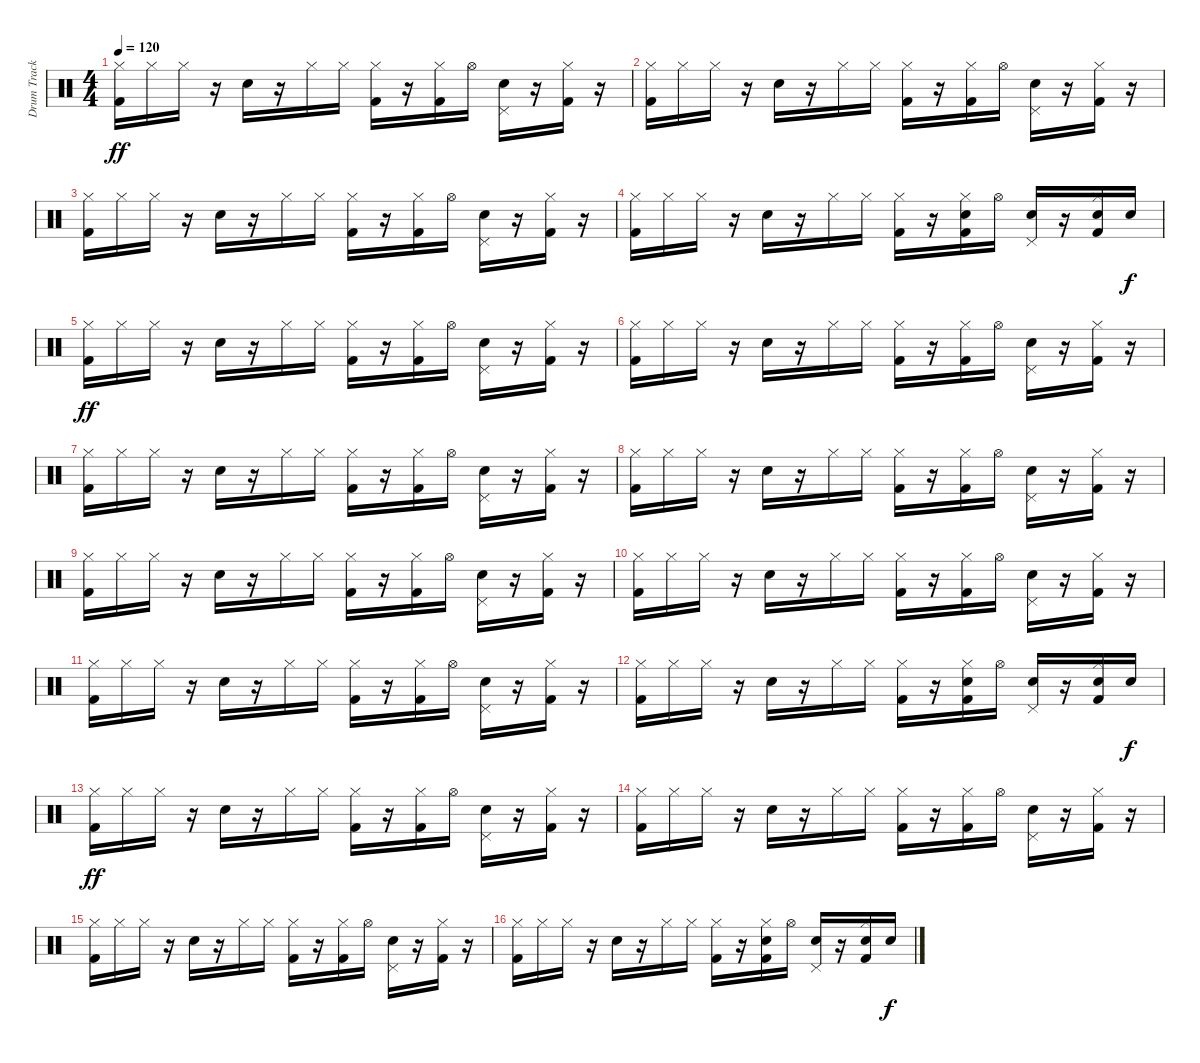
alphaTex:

\track ("Drum Track" "Drum Track") {instrument percussion}
\staff {score}
\articulation defaults
\ts (4 4)
\tempo 120
\clef neutral
\ks c
("Kick (hit) 2" "Hi-Hat (closed)").16{dy ff} "Hi-Hat (closed)".16 "Hi-Hat (closed)".16 r.16 "Snare (hit) 2".16 r.16 "Hi-Hat (closed)".16 "Hi-Hat (closed)".16 ("Kick (hit) 2" "Hi-Hat (closed)").16 r.16 ("Kick (hit) 2" "Hi-Hat (closed)").16 "Hi-Hat (open)".16 ("Snare (hit) 2" "Pedal Hi-Hat (hit)").16 r.16 ("Kick (hit) 2" "Hi-Hat (closed)").16 r.16 |
("Kick (hit) 2" "Hi-Hat (closed)").16 "Hi-Hat (closed)".16 "Hi-Hat (closed)".16 r.16 "Snare (hit) 2".16 r.16 "Hi-Hat (closed)".16 "Hi-Hat (closed)".16 ("Kick (hit) 2" "Hi-Hat (closed)").16 r.16 ("Kick (hit) 2" "Hi-Hat (closed)").16 "Hi-Hat (open)".16 ("Snare (hit) 2" "Pedal Hi-Hat (hit)").16 r.16 ("Kick (hit) 2" "Hi-Hat (closed)").16 r.16 |
("Kick (hit) 2" "Hi-Hat (closed)").16 "Hi-Hat (closed)".16 "Hi-Hat (closed)".16 r.16 "Snare (hit) 2".16 r.16 "Hi-Hat (closed)".16 "Hi-Hat (closed)".16 ("Kick (hit) 2" "Hi-Hat (closed)").16 r.16 ("Kick (hit) 2" "Hi-Hat (closed)").16 "Hi-Hat (open)".16 ("Snare (hit) 2" "Pedal Hi-Hat (hit)").16 r.16 ("Kick (hit) 2" "Hi-Hat (closed)").16 r.16 |
("Kick (hit) 2" "Hi-Hat (closed)").16 "Hi-Hat (closed)".16 "Hi-Hat (closed)".16 r.16 "Snare (hit) 2".16 r.16 "Hi-Hat (closed)".16 "Hi-Hat (closed)".16 ("Kick (hit) 2" "Hi-Hat (closed)").16 r.16 ("Kick (hit) 2" "Hi-Hat (closed)" "Snare (hit) 2").16 "Hi-Hat (open)".16 ("Snare (hit) 2" "Pedal Hi-Hat (hit)").16 r.16 ("Kick (hit) 2" "Hi-Hat (closed)" "Snare (hit) 2").16 "Snare (hit) 2".16{dy f} |
("Kick (hit) 2" "Hi-Hat (closed)").16{dy ff} "Hi-Hat (closed)".16 "Hi-Hat (closed)".16 r.16 "Snare (hit) 2".16 r.16 "Hi-Hat (closed)".16 "Hi-Hat (closed)".16 ("Kick (hit) 2" "Hi-Hat (closed)").16 r.16 ("Kick (hit) 2" "Hi-Hat (closed)").16 "Hi-Hat (open)".16 ("Snare (hit) 2" "Pedal Hi-Hat (hit)").16 r.16 ("Kick (hit) 2" "Hi-Hat (closed)").16 r.16 |
("Kick (hit) 2" "Hi-Hat (closed)").16 "Hi-Hat (closed)".16 "Hi-Hat (closed)".16 r.16 "Snare (hit) 2".16 r.16 "Hi-Hat (closed)".16 "Hi-Hat (closed)".16 ("Kick (hit) 2" "Hi-Hat (closed)").16 r.16 ("Kick (hit) 2" "Hi-Hat (closed)").16 "Hi-Hat (open)".16 ("Snare (hit) 2" "Pedal Hi-Hat (hit)").16 r.16 ("Kick (hit) 2" "Hi-Hat (closed)").16 r.16 |
("Kick (hit) 2" "Hi-Hat (closed)").16 "Hi-Hat (closed)".16 "Hi-Hat (closed)".16 r.16 "Snare (hit) 2".16 r.16 "Hi-Hat (closed)".16 "Hi-Hat (closed)".16 ("Kick (hit) 2" "Hi-Hat (closed)").16 r.16 ("Kick (hit) 2" "Hi-Hat (closed)").16 "Hi-Hat (open)".16 ("Snare (hit) 2" "Pedal Hi-Hat (hit)").16 r.16 ("Kick (hit) 2" "Hi-Hat (closed)").16 r.16 |
("Kick (hit) 2" "Hi-Hat (closed)").16 "Hi-Hat (closed)".16 "Hi-Hat (closed)".16 r.16 "Snare (hit) 2".16 r.16 "Hi-Hat (closed)".16 "Hi-Hat (closed)".16 ("Kick (hit) 2" "Hi-Hat (closed)").16 r.16 ("Kick (hit) 2" "Hi-Hat (closed)").16 "Hi-Hat (open)".16 ("Snare (hit) 2" "Pedal Hi-Hat (hit)").16 r.16 ("Kick (hit) 2" "Hi-Hat (closed)").16 r.16 |
("Kick (hit) 2" "Hi-Hat (closed)").16 "Hi-Hat (closed)".16 "Hi-Hat (closed)".16 r.16 "Snare (hit) 2".16 r.16 "Hi-Hat (closed)".16 "Hi-Hat (closed)".16 ("Kick (hit) 2" "Hi-Hat (closed)").16 r.16 ("Kick (hit) 2" "Hi-Hat (closed)").16 "Hi-Hat (open)".16 ("Snare (hit) 2" "Pedal Hi-Hat (hit)").16 r.16 ("Kick (hit) 2" "Hi-Hat (closed)").16 r.16 |
("Kick (hit) 2" "Hi-Hat (closed)").16 "Hi-Hat (closed)".16 "Hi-Hat (closed)".16 r.16 "Snare (hit) 2".16 r.16 "Hi-Hat (closed)".16 "Hi-Hat (closed)".16 ("Kick (hit) 2" "Hi-Hat (closed)").16 r.16 ("Kick (hit) 2" "Hi-Hat (closed)").16 "Hi-Hat (open)".16 ("Snare (hit) 2" "Pedal Hi-Hat (hit)").16 r.16 ("Kick (hit) 2" "Hi-Hat (closed)").16 r.16 |
("Kick (hit) 2" "Hi-Hat (closed)").16 "Hi-Hat (closed)".16 "Hi-Hat (closed)".16 r.16 "Snare (hit) 2".16 r.16 "Hi-Hat (closed)".16 "Hi-Hat (closed)".16 ("Kick (hit) 2" "Hi-Hat (closed)").16 r.16 ("Kick (hit) 2" "Hi-Hat (closed)").16 "Hi-Hat (open)".16 ("Snare (hit) 2" "Pedal Hi-Hat (hit)").16 r.16 ("Kick (hit) 2" "Hi-Hat (closed)").16 r.16 |
("Kick (hit) 2" "Hi-Hat (closed)").16 "Hi-Hat (closed)".16 "Hi-Hat (closed)".16 r.16 "Snare (hit) 2".16 r.16 "Hi-Hat (closed)".16 "Hi-Hat (closed)".16 ("Kick (hit) 2" "Hi-Hat (closed)").16 r.16 ("Kick (hit) 2" "Hi-Hat (closed)" "Snare (hit) 2").16 "Hi-Hat (open)".16 ("Snare (hit) 2" "Pedal Hi-Hat (hit)").16 r.16 ("Kick (hit) 2" "Hi-Hat (closed)" "Snare (hit) 2").16 "Snare (hit) 2".16{dy f} |
("Kick (hit) 2" "Hi-Hat (closed)").16{dy ff} "Hi-Hat (closed)".16 "Hi-Hat (closed)".16 r.16 "Snare (hit) 2".16 r.16 "Hi-Hat (closed)".16 "Hi-Hat (closed)".16 ("Kick (hit) 2" "Hi-Hat (closed)").16 r.16 ("Kick (hit) 2" "Hi-Hat (closed)").16 "Hi-Hat (open)".16 ("Snare (hit) 2" "Pedal Hi-Hat (hit)").16 r.16 ("Kick (hit) 2" "Hi-Hat (closed)").16 r.16 |
("Kick (hit) 2" "Hi-Hat (closed)").16 "Hi-Hat (closed)".16 "Hi-Hat (closed)".16 r.16 "Snare (hit) 2".16 r.16 "Hi-Hat (closed)".16 "Hi-Hat (closed)".16 ("Kick (hit) 2" "Hi-Hat (closed)").16 r.16 ("Kick (hit) 2" "Hi-Hat (closed)").16 "Hi-Hat (open)".16 ("Snare (hit) 2" "Pedal Hi-Hat (hit)").16 r.16 ("Kick (hit) 2" "Hi-Hat (closed)").16 r.16 |
("Kick (hit) 2" "Hi-Hat (closed)").16 "Hi-Hat (closed)".16 "Hi-Hat (closed)".16 r.16 "Snare (hit) 2".16 r.16 "Hi-Hat (closed)".16 "Hi-Hat (closed)".16 ("Kick (hit) 2" "Hi-Hat (closed)").16 r.16 ("Kick (hit) 2" "Hi-Hat (closed)").16 "Hi-Hat (open)".16 ("Snare (hit) 2" "Pedal Hi-Hat (hit)").16 r.16 ("Kick (hit) 2" "Hi-Hat (closed)").16 r.16 |
("Kick (hit) 2" "Hi-Hat (closed)").16 "Hi-Hat (closed)".16 "Hi-Hat (closed)".16 r.16 "Snare (hit) 2".16 r.16 "Hi-Hat (closed)".16 "Hi-Hat (closed)".16 ("Kick (hit) 2" "Hi-Hat (closed)").16 r.16 ("Kick (hit) 2" "Hi-Hat (closed)" "Snare (hit) 2").16 "Hi-Hat (open)".16 ("Snare (hit) 2" "Pedal Hi-Hat (hit)").16 r.16 ("Kick (hit) 2" "Hi-Hat (closed)" "Snare (hit) 2").16 "Snare (hit) 2".16{dy f}
